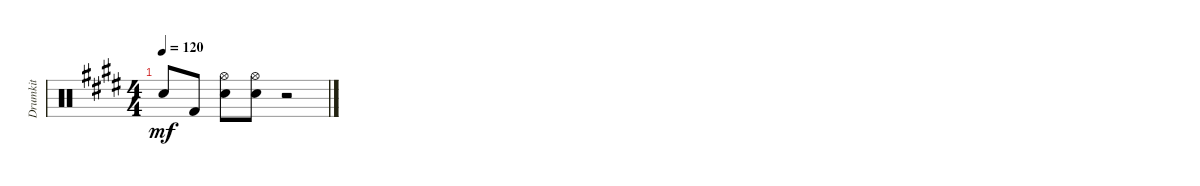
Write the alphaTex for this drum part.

\track ("Drumkit" "Drumkit") {instrument percussion}
\staff {score}
\articulation defaults
\ts (4 4)
\tempo 120
\clef neutral
\ks e "Snare (hit) 2".8{dy mf} "Kick (hit) 2".8
("Snare (hit) 2" "Hi-Hat (open)").8 ("Snare (hit) 2" "Hi-Hat (open)").8 r.2
